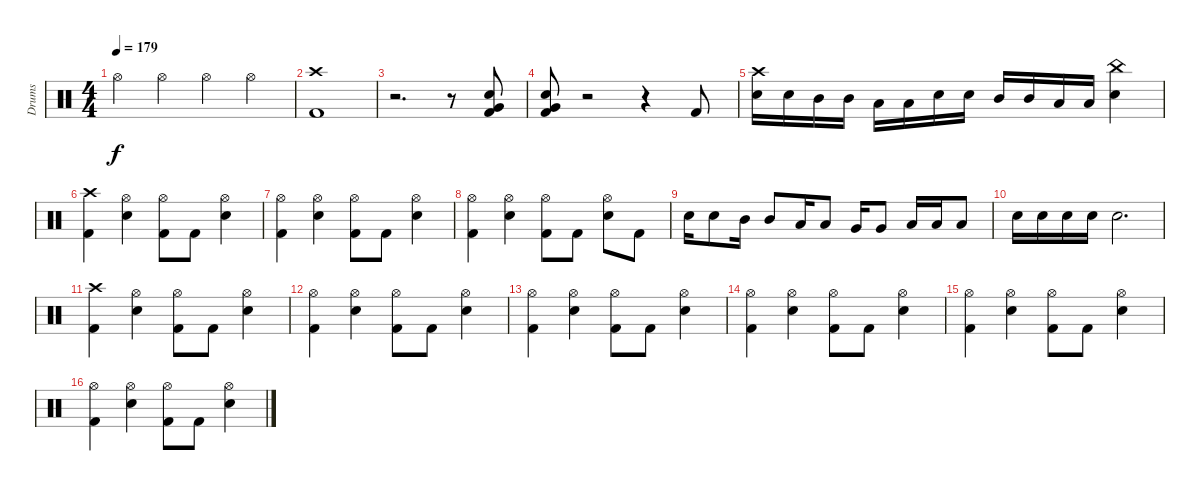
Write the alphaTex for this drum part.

\track ("Drums" "Drums") {instrument percussion}
\staff {score}
\articulation defaults
\ts (4 4)
\tempo 179
\clef neutral
\ks c "Hi-Hat (open)".4{dy f} "Hi-Hat (open)".4 "Hi-Hat (open)".4 "Hi-Hat (open)".4
|
("Crash high (hit)" "Kick (hit) 2").1 |
r.2{d} r.8 ("Snare (hit) 2" "Very Low Tom (hit)" "Kick (hit) 2").8 |
("Snare (hit) 2" "Very Low Tom (hit)" "Kick (hit) 2").8 r.2 r.4 "Kick (hit) 2".8 |
("Crash high (hit)" "Snare (hit) 2").16 "Snare (hit) 2".16 "Mid Tom (hit)".16 "Mid Tom (hit)".16 "Low Tom (hit)".16 "Low Tom (hit)".16 "Snare (hit) 2".16 "Snare (hit) 2".16 "Mid Tom (hit)".16 "Mid Tom (hit)".16 "Low Tom (hit)".16 "Low Tom (hit)".16 ("China (hit)" "Snare (hit) 2").4 |
("Crash high (hit)" "Kick (hit) 2").4 ("Hi-Hat (open)" "Snare (hit) 2").4 ("Hi-Hat (open)" "Kick (hit) 2").8 "Kick (hit) 2".8 ("Hi-Hat (open)" "Snare (hit) 2").4 |
("Hi-Hat (open)" "Kick (hit) 2").4 ("Hi-Hat (open)" "Snare (hit) 2").4 ("Hi-Hat (open)" "Kick (hit) 2").8 "Kick (hit) 2".8 ("Hi-Hat (open)" "Snare (hit) 2").4 |
("Hi-Hat (open)" "Kick (hit) 2").4 ("Hi-Hat (open)" "Snare (hit) 2").4 ("Hi-Hat (open)" "Kick (hit) 2").8 "Kick (hit) 2".8 ("Hi-Hat (open)" "Snare (hit) 2").8 "Kick (hit) 2".8 |
"Snare (hit) 2".16 "Snare (hit) 2".8 "Mid Tom (hit)".16 "Mid Tom (hit)".8 "Low Tom (hit)".16 "Low Tom (hit)".8 "Very Low Tom (hit)".16 "Very Low Tom (hit)".8 "Low Floor Tom (hit)".16 "Low Floor Tom (hit)".16 "Low Floor Tom (hit)".8 |
"Snare (hit) 2".16 "Snare (hit) 2".16 "Snare (hit) 2".16 "Snare (hit) 2".16 "Snare (hit) 2".2{d} |
("Crash high (hit)" "Kick (hit) 2").4 ("Hi-Hat (open)" "Snare (hit) 2").4 ("Hi-Hat (open)" "Kick (hit) 2").8 "Kick (hit) 2".8 ("Hi-Hat (open)" "Snare (hit) 2").4 |
("Hi-Hat (open)" "Kick (hit) 2").4 ("Hi-Hat (open)" "Snare (hit) 2").4 ("Hi-Hat (open)" "Kick (hit) 2").8 "Kick (hit) 2".8 ("Hi-Hat (open)" "Snare (hit) 2").4 |
("Hi-Hat (open)" "Kick (hit) 2").4 ("Hi-Hat (open)" "Snare (hit) 2").4 ("Hi-Hat (open)" "Kick (hit) 2").8 "Kick (hit) 2".8 ("Hi-Hat (open)" "Snare (hit) 2").4 |
("Hi-Hat (open)" "Kick (hit) 2").4 ("Hi-Hat (open)" "Snare (hit) 2").4 ("Hi-Hat (open)" "Kick (hit) 2").8 "Kick (hit) 2".8 ("Hi-Hat (open)" "Snare (hit) 2").4 |
("Hi-Hat (open)" "Kick (hit) 2").4 ("Hi-Hat (open)" "Snare (hit) 2").4 ("Hi-Hat (open)" "Kick (hit) 2").8 "Kick (hit) 2".8 ("Hi-Hat (open)" "Snare (hit) 2").4 |
("Hi-Hat (open)" "Kick (hit) 2").4 ("Hi-Hat (open)" "Snare (hit) 2").4 ("Hi-Hat (open)" "Kick (hit) 2").8 "Kick (hit) 2".8 ("Hi-Hat (open)" "Snare (hit) 2").4
